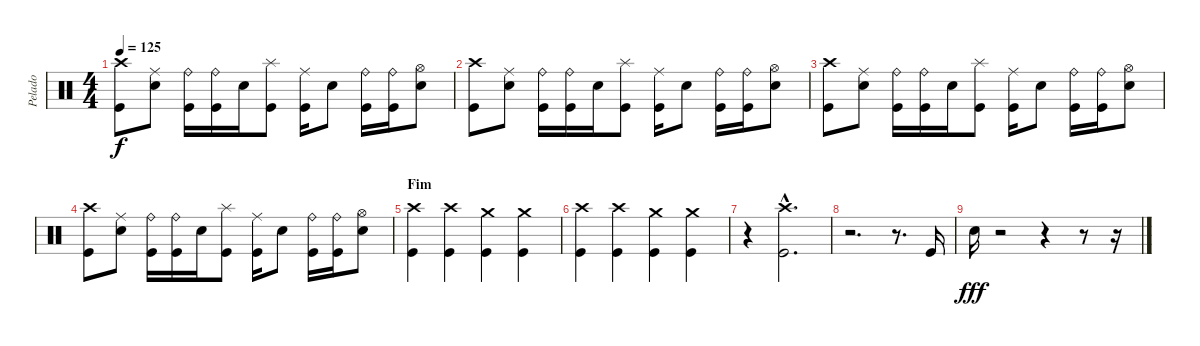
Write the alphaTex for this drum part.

\track ("Pelado" "Pelado") {instrument percussion}
\staff {score}
\articulation defaults
\ts (4 4)
\tempo 125
\clef neutral
\ks c
("Crash high (hit)" "Kick (hit)").8{dy f} ("Ride (middle)" "Electric Snare (hit)").8 ("Ride (bell)" "Kick (hit)").16 ("Ride (bell)" "Kick (hit)").16 "Electric Snare (hit)".16 ("Splash (hit)" "Kick (hit)").8 ("Ride (middle)" "Kick (hit)").16 "Electric Snare (hit)".8 ("Ride (bell)" "Kick (hit)").16 ("Ride (bell)" "Kick (hit)").16 ("Hi-Hat (open)" "Electric Snare (hit)").8 |
("Crash high (hit)" "Kick (hit)").8 ("Ride (middle)" "Electric Snare (hit)").8 ("Ride (bell)" "Kick (hit)").16 ("Ride (bell)" "Kick (hit)").16 "Electric Snare (hit)".16 ("Splash (hit)" "Kick (hit)").8 ("Ride (middle)" "Kick (hit)").16 "Electric Snare (hit)".8 ("Ride (bell)" "Kick (hit)").16 ("Ride (bell)" "Kick (hit)").16 ("Hi-Hat (open)" "Electric Snare (hit)").8 |
("Crash high (hit)" "Kick (hit)").8 ("Ride (middle)" "Electric Snare (hit)").8 ("Ride (bell)" "Kick (hit)").16 ("Ride (bell)" "Kick (hit)").16 "Electric Snare (hit)".16 ("Splash (hit)" "Kick (hit)").8 ("Ride (middle)" "Kick (hit)").16 "Electric Snare (hit)".8 ("Ride (bell)" "Kick (hit)").16 ("Ride (bell)" "Kick (hit)").16 ("Hi-Hat (open)" "Electric Snare (hit)").8 |
("Crash high (hit)" "Kick (hit)").8 ("Ride (middle)" "Electric Snare (hit)").8 ("Ride (bell)" "Kick (hit)").16 ("Ride (bell)" "Kick (hit)").16 "Electric Snare (hit)".16 ("Splash (hit)" "Kick (hit)").8 ("Ride (middle)" "Kick (hit)").16 "Electric Snare (hit)".8 ("Ride (bell)" "Kick (hit)").16 ("Ride (bell)" "Kick (hit)").16 ("Hi-Hat (open)" "Electric Snare (hit)").8 |
\section ("" "Fim")
("Crash high (hit)" "Kick (hit)").4 ("Crash high (hit)" "Kick (hit)").4 ("Crash medium (hit)" "Kick (hit)").4 ("Crash medium (hit)" "Kick (hit)").4 |
("Crash high (hit)" "Kick (hit)").4 ("Crash high (hit)" "Kick (hit)").4 ("Crash medium (hit)" "Kick (hit)").4 ("Crash medium (hit)" "Kick (hit)").4 |
r.4 ("Crash high (hit)"{hac} "Kick (hit)"{hac}).2{d} |
r.2{d} r.8{d} "Kick (hit)".16 |
"Electric Snare (hit)".16{dy fff} r.2 r.4 r.8 r.16
